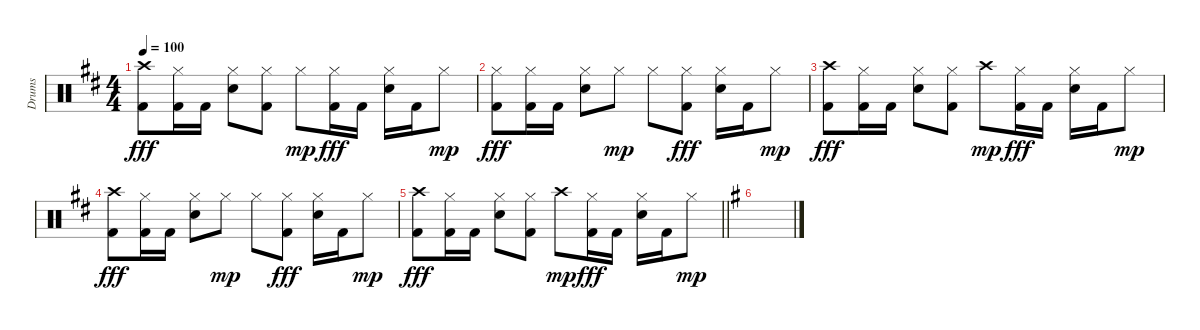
\track ("Drums" "Drums") {instrument percussion}
\staff
\articulation defaults
\ts (4 4)
\tempo 100
\clef neutral
\ks bminor
("Crash high (hit)" "Kick (hit) 2").8{dy fff} ("Hi-Hat (closed)" "Kick (hit) 2").16 "Kick (hit) 2".16 ("Hi-Hat (closed)" "Electric Snare (hit)").8 ("Hi-Hat (closed)" "Kick (hit) 2").8 "Hi-Hat (closed)".8{dy mp} ("Hi-Hat (closed)" "Kick (hit) 2").16{dy fff} "Kick (hit) 2".16 ("Hi-Hat (closed)" "Electric Snare (hit)").16 "Kick (hit) 2".16 "Hi-Hat (closed)".8{dy mp} |
("Hi-Hat (closed)" "Kick (hit) 2").8{dy fff} ("Hi-Hat (closed)" "Kick (hit) 2").16 "Kick (hit) 2".16 ("Hi-Hat (closed)" "Electric Snare (hit)").8 "Hi-Hat (closed)".8{dy mp} "Hi-Hat (closed)".8 ("Hi-Hat (closed)" "Kick (hit) 2").8{dy fff} ("Hi-Hat (closed)" "Electric Snare (hit)").16 "Kick (hit) 2".16 "Hi-Hat (closed)".8{dy mp} |
("Crash high (hit)" "Kick (hit) 2").8{dy fff} ("Hi-Hat (closed)" "Kick (hit) 2").16 "Kick (hit) 2".16 ("Hi-Hat (closed)" "Electric Snare (hit)").8 ("Hi-Hat (closed)" "Kick (hit) 2").8 "Crash high (hit)".8{dy mp} ("Hi-Hat (closed)" "Kick (hit) 2").16{dy fff} "Kick (hit) 2".16 ("Hi-Hat (closed)" "Electric Snare (hit)").16 "Kick (hit) 2".16 "Hi-Hat (closed)".8{dy mp} |
("Crash high (hit)" "Kick (hit) 2").8{dy fff} ("Hi-Hat (closed)" "Kick (hit) 2").16 "Kick (hit) 2".16 ("Hi-Hat (closed)" "Electric Snare (hit)").8 "Hi-Hat (closed)".8{dy mp} "Hi-Hat (closed)".8 ("Hi-Hat (closed)" "Kick (hit) 2").8{dy fff} ("Hi-Hat (closed)" "Electric Snare (hit)").16 "Kick (hit) 2".16 "Hi-Hat (closed)".8{dy mp} |
\barLineRight lightlight
("Crash high (hit)" "Kick (hit) 2").8{dy fff} ("Hi-Hat (closed)" "Kick (hit) 2").16 "Kick (hit) 2".16 ("Hi-Hat (closed)" "Electric Snare (hit)").8 ("Hi-Hat (closed)" "Kick (hit) 2").8 "Crash high (hit)".8{dy mp} ("Hi-Hat (closed)" "Kick (hit) 2").16{dy fff} "Kick (hit) 2".16 ("Hi-Hat (closed)" "Electric Snare (hit)").16 "Kick (hit) 2".16 "Hi-Hat (closed)".8{dy mp} |
\ks g
